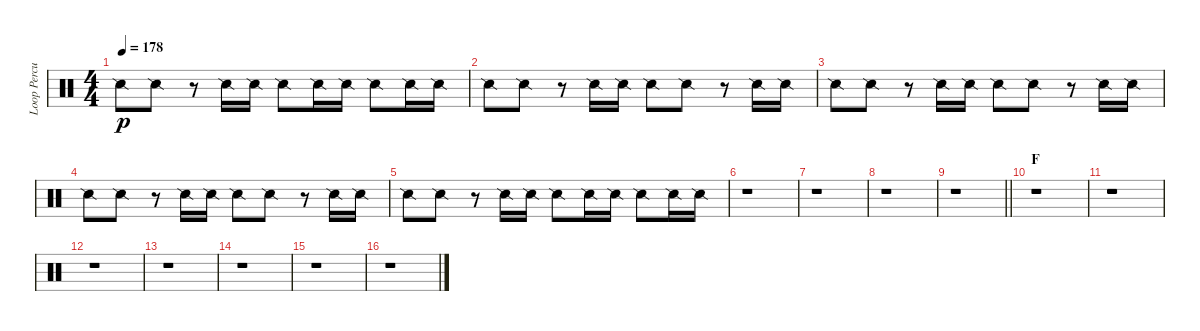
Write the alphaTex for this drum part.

\track ("Loop Percussion" "Loop Percu") {instrument percussion}
\staff {score}
\articulation defaults
\ts (4 4)
\tempo 178
\clef neutral
\ks c "Snare (side stick) 2".8{dy p} "Snare (side stick) 2".8
r.8 "Snare (side stick) 2".16 "Snare (side stick) 2".16 "Snare (side stick) 2".8 "Snare (side stick) 2".16 "Snare (side stick) 2".16 "Snare (side stick) 2".8 "Snare (side stick) 2".16 "Snare (side stick) 2".16 |
"Snare (side stick) 2".8 "Snare (side stick) 2".8 r.8 "Snare (side stick) 2".16 "Snare (side stick) 2".16 "Snare (side stick) 2".8 "Snare (side stick) 2".8 r.8 "Snare (side stick) 2".16 "Snare (side stick) 2".16 |
"Snare (side stick) 2".8 "Snare (side stick) 2".8 r.8 "Snare (side stick) 2".16 "Snare (side stick) 2".16 "Snare (side stick) 2".8 "Snare (side stick) 2".8 r.8 "Snare (side stick) 2".16 "Snare (side stick) 2".16 |
"Snare (side stick) 2".8 "Snare (side stick) 2".8 r.8 "Snare (side stick) 2".16 "Snare (side stick) 2".16 "Snare (side stick) 2".8 "Snare (side stick) 2".8 r.8 "Snare (side stick) 2".16 "Snare (side stick) 2".16 |
"Snare (side stick) 2".8 "Snare (side stick) 2".8 r.8 "Snare (side stick) 2".16 "Snare (side stick) 2".16 "Snare (side stick) 2".8 "Snare (side stick) 2".16 "Snare (side stick) 2".16 "Snare (side stick) 2".8 "Snare (side stick) 2".16 "Snare (side stick) 2".16 |
r.1 |
r.1 |
r.1 |
\barLineRight lightlight
r.1 |
\section ("" "F")
r.1 |
r.1 |
r.1 |
r.1 |
r.1 |
r.1 |
r.1
